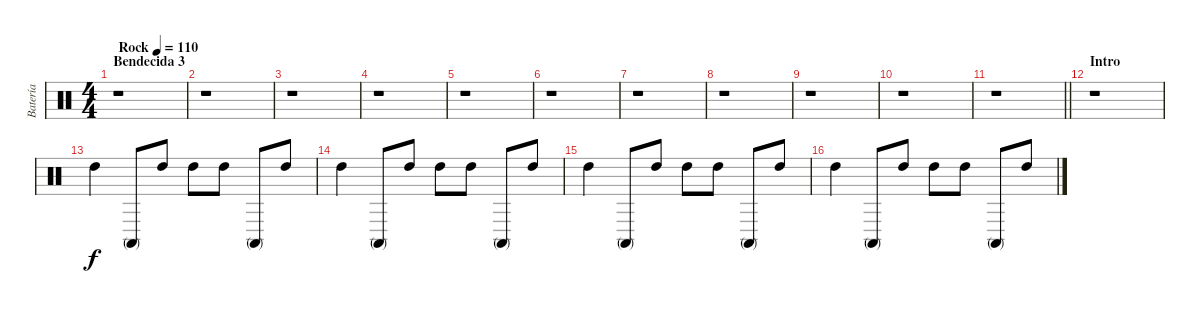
\track ("Batería" "Batería") {instrument percussion}
\staff {score}
\articulation defaults
\ts (4 4)
\section ("" "Bendecida 3")
\tempo (110 "Rock")
\clef neutral
\ks c
r.1{dy f} |
r.1 |
r.1 |
r.1 |
r.1 |
r.1 |
r.1 |
r.1 |
r.1 |
r.1 |
\barLineRight lightlight
r.1 |
\section ("" "Intro")
r.1 |
"High Tom (hit)".4 "Conga high (mute)".8 "High Tom (hit)".8 "High Tom (hit)".8 "High Tom (hit)".8 "Conga high (mute)".8 "High Tom (hit)".8 |
"High Tom (hit)".4 "Conga high (mute)".8 "High Tom (hit)".8 "High Tom (hit)".8 "High Tom (hit)".8 "Conga high (mute)".8 "High Tom (hit)".8 |
"High Tom (hit)".4 "Conga high (mute)".8 "High Tom (hit)".8 "High Tom (hit)".8 "High Tom (hit)".8 "Conga high (mute)".8 "High Tom (hit)".8 |
"High Tom (hit)".4 "Conga high (mute)".8 "High Tom (hit)".8 "High Tom (hit)".8 "High Tom (hit)".8 "Conga high (mute)".8 "High Tom (hit)".8
